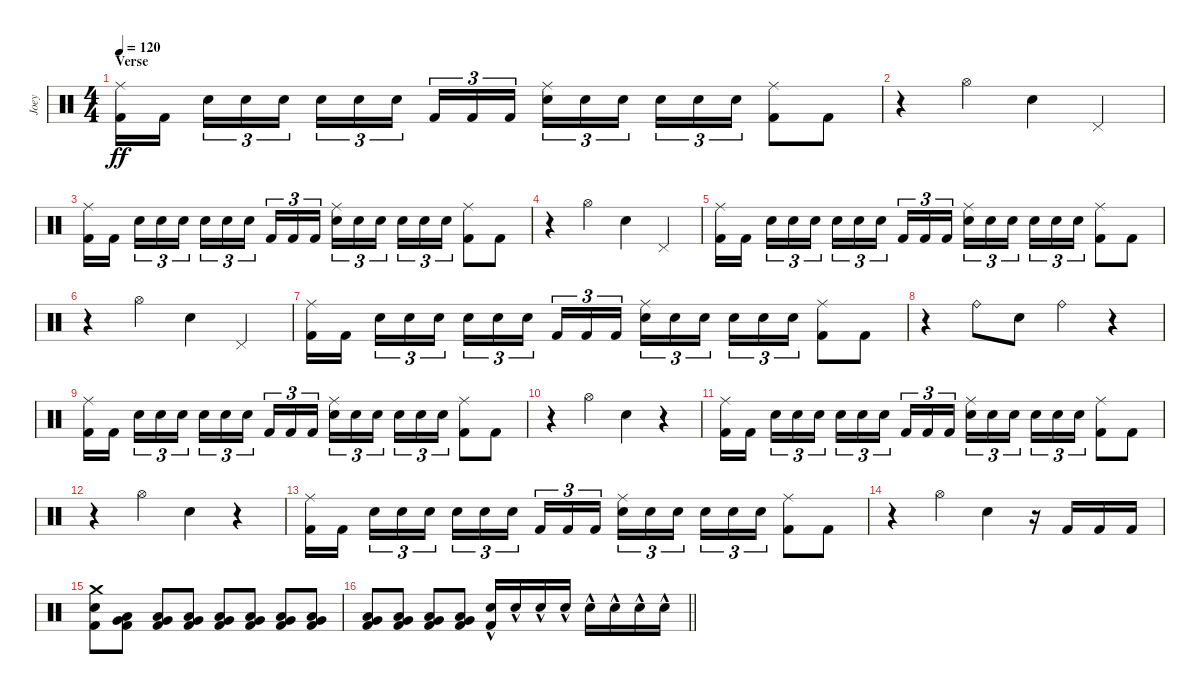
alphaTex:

\track ("Joey" "Joey") {instrument percussion}
\staff {score}
\articulation defaults
\ts (4 4)
\section ("" "Verse")
\tempo 120
\clef neutral
\ks c
("Ride (middle)" "Kick (hit) 2").16{dy ff} "Kick (hit) 2".16{beam splitsecondary} "Snare (hit) 2".16{tu (3 2)} "Snare (hit) 2".16{tu (3 2)} "Snare (hit) 2".16{tu (3 2)} "Snare (hit) 2".16{tu (3 2)} "Snare (hit) 2".16{tu (3 2)} "Snare (hit) 2".16{tu (3 2) beam splitsecondary} "Kick (hit) 2".16{tu (3 2)} "Kick (hit) 2".16{tu (3 2)} "Kick (hit) 2".16{tu (3 2)} ("Ride (middle)" "Snare (hit) 2").16{tu (3 2)} "Snare (hit) 2".16{tu (3 2)} "Snare (hit) 2".16{tu (3 2) beam splitsecondary} "Snare (hit) 2".16{tu (3 2)} "Snare (hit) 2".16{tu (3 2)} "Snare (hit) 2".16{tu (3 2)} ("Ride (middle)" "Kick (hit) 2").8 "Kick (hit) 2".8 |
r.4 "Hi-Hat (open)".4 "Snare (hit) 2".4 "Pedal Hi-Hat (hit)".4 |
("Ride (middle)" "Kick (hit) 2").16 "Kick (hit) 2".16{beam splitsecondary} "Snare (hit) 2".16{tu (3 2)} "Snare (hit) 2".16{tu (3 2)} "Snare (hit) 2".16{tu (3 2)} "Snare (hit) 2".16{tu (3 2)} "Snare (hit) 2".16{tu (3 2)} "Snare (hit) 2".16{tu (3 2) beam splitsecondary} "Kick (hit) 2".16{tu (3 2)} "Kick (hit) 2".16{tu (3 2)} "Kick (hit) 2".16{tu (3 2)} ("Ride (middle)" "Snare (hit) 2").16{tu (3 2)} "Snare (hit) 2".16{tu (3 2)} "Snare (hit) 2".16{tu (3 2) beam splitsecondary} "Snare (hit) 2".16{tu (3 2)} "Snare (hit) 2".16{tu (3 2)} "Snare (hit) 2".16{tu (3 2)} ("Ride (middle)" "Kick (hit) 2").8 "Kick (hit) 2".8 |
r.4 "Hi-Hat (open)".4 "Snare (hit) 2".4 "Pedal Hi-Hat (hit)".4 |
("Ride (middle)" "Kick (hit) 2").16 "Kick (hit) 2".16{beam splitsecondary} "Snare (hit) 2".16{tu (3 2)} "Snare (hit) 2".16{tu (3 2)} "Snare (hit) 2".16{tu (3 2)} "Snare (hit) 2".16{tu (3 2)} "Snare (hit) 2".16{tu (3 2)} "Snare (hit) 2".16{tu (3 2) beam splitsecondary} "Kick (hit) 2".16{tu (3 2)} "Kick (hit) 2".16{tu (3 2)} "Kick (hit) 2".16{tu (3 2)} ("Ride (middle)" "Snare (hit) 2").16{tu (3 2)} "Snare (hit) 2".16{tu (3 2)} "Snare (hit) 2".16{tu (3 2) beam splitsecondary} "Snare (hit) 2".16{tu (3 2)} "Snare (hit) 2".16{tu (3 2)} "Snare (hit) 2".16{tu (3 2)} ("Ride (middle)" "Kick (hit) 2").8 "Kick (hit) 2".8 |
r.4 "Hi-Hat (open)".4 "Snare (hit) 2".4 "Pedal Hi-Hat (hit)".4 |
("Ride (middle)" "Kick (hit) 2").16 "Kick (hit) 2".16{beam splitsecondary} "Snare (hit) 2".16{tu (3 2)} "Snare (hit) 2".16{tu (3 2)} "Snare (hit) 2".16{tu (3 2)} "Snare (hit) 2".16{tu (3 2)} "Snare (hit) 2".16{tu (3 2)} "Snare (hit) 2".16{tu (3 2) beam splitsecondary} "Kick (hit) 2".16{tu (3 2)} "Kick (hit) 2".16{tu (3 2)} "Kick (hit) 2".16{tu (3 2)} ("Ride (middle)" "Snare (hit) 2").16{tu (3 2)} "Snare (hit) 2".16{tu (3 2)} "Snare (hit) 2".16{tu (3 2) beam splitsecondary} "Snare (hit) 2".16{tu (3 2)} "Snare (hit) 2".16{tu (3 2)} "Snare (hit) 2".16{tu (3 2)} ("Ride (middle)" "Kick (hit) 2").8 "Kick (hit) 2".8 |
r.4 "Ride (bell)".8 "Snare (hit) 2".8 "Ride (bell)".4 r.4 |
("Ride (middle)" "Kick (hit) 2").16 "Kick (hit) 2".16{beam splitsecondary} "Snare (hit) 2".16{tu (3 2)} "Snare (hit) 2".16{tu (3 2)} "Snare (hit) 2".16{tu (3 2)} "Snare (hit) 2".16{tu (3 2)} "Snare (hit) 2".16{tu (3 2)} "Snare (hit) 2".16{tu (3 2) beam splitsecondary} "Kick (hit) 2".16{tu (3 2)} "Kick (hit) 2".16{tu (3 2)} "Kick (hit) 2".16{tu (3 2)} ("Ride (middle)" "Snare (hit) 2").16{tu (3 2)} "Snare (hit) 2".16{tu (3 2)} "Snare (hit) 2".16{tu (3 2) beam splitsecondary} "Snare (hit) 2".16{tu (3 2)} "Snare (hit) 2".16{tu (3 2)} "Snare (hit) 2".16{tu (3 2)} ("Ride (middle)" "Kick (hit) 2").8 "Kick (hit) 2".8 |
r.4 "Hi-Hat (open)".4 "Snare (hit) 2".4 r.4 |
("Ride (middle)" "Kick (hit) 2").16 "Kick (hit) 2".16{beam splitsecondary} "Snare (hit) 2".16{tu (3 2)} "Snare (hit) 2".16{tu (3 2)} "Snare (hit) 2".16{tu (3 2)} "Snare (hit) 2".16{tu (3 2)} "Snare (hit) 2".16{tu (3 2)} "Snare (hit) 2".16{tu (3 2) beam splitsecondary} "Kick (hit) 2".16{tu (3 2)} "Kick (hit) 2".16{tu (3 2)} "Kick (hit) 2".16{tu (3 2)} ("Ride (middle)" "Snare (hit) 2").16{tu (3 2)} "Snare (hit) 2".16{tu (3 2)} "Snare (hit) 2".16{tu (3 2) beam splitsecondary} "Snare (hit) 2".16{tu (3 2)} "Snare (hit) 2".16{tu (3 2)} "Snare (hit) 2".16{tu (3 2)} ("Ride (middle)" "Kick (hit) 2").8 "Kick (hit) 2".8 |
r.4 "Hi-Hat (open)".4 "Snare (hit) 2".4 r.4 |
("Ride (middle)" "Kick (hit) 2").16 "Kick (hit) 2".16{beam splitsecondary} "Snare (hit) 2".16{tu (3 2)} "Snare (hit) 2".16{tu (3 2)} "Snare (hit) 2".16{tu (3 2)} "Snare (hit) 2".16{tu (3 2)} "Snare (hit) 2".16{tu (3 2)} "Snare (hit) 2".16{tu (3 2) beam splitsecondary} "Kick (hit) 2".16{tu (3 2)} "Kick (hit) 2".16{tu (3 2)} "Kick (hit) 2".16{tu (3 2)} ("Ride (middle)" "Snare (hit) 2").16{tu (3 2)} "Snare (hit) 2".16{tu (3 2)} "Snare (hit) 2".16{tu (3 2) beam splitsecondary} "Snare (hit) 2".16{tu (3 2)} "Snare (hit) 2".16{tu (3 2)} "Snare (hit) 2".16{tu (3 2)} ("Ride (middle)" "Kick (hit) 2").8 "Kick (hit) 2".8 |
r.4 "Hi-Hat (open)".4 "Snare (hit) 2".4 r.16 "Kick (hit) 2".16 "Kick (hit) 2".16 "Kick (hit) 2".16 |
("Crash medium (hit)" "Snare (hit) 2" "Kick (hit) 2").8 ("Very Low Tom (hit)" "Low Floor Tom (hit)" "Kick (hit) 2").8 ("Very Low Tom (hit)" "Low Floor Tom (hit)" "Kick (hit) 2").8 ("Very Low Tom (hit)" "Low Floor Tom (hit)" "Kick (hit) 2").8 ("Very Low Tom (hit)" "Low Floor Tom (hit)" "Kick (hit) 2").8 ("Very Low Tom (hit)" "Low Floor Tom (hit)" "Kick (hit) 2").8 ("Very Low Tom (hit)" "Low Floor Tom (hit)" "Kick (hit) 2").8 ("Very Low Tom (hit)" "Low Floor Tom (hit)" "Kick (hit) 2").8 |
\barLineRight lightlight
("Very Low Tom (hit)" "Low Floor Tom (hit)" "Kick (hit) 2").8 ("Very Low Tom (hit)" "Low Floor Tom (hit)" "Kick (hit) 2").8 ("Very Low Tom (hit)" "Low Floor Tom (hit)" "Kick (hit) 2").8 ("Very Low Tom (hit)" "Low Floor Tom (hit)" "Kick (hit) 2").8 ("Snare (hit) 2"{hac} "Kick (hit) 2").16 "Snare (hit) 2"{hac}.16 "Snare (hit) 2"{hac}.16 "Snare (hit) 2"{hac}.16 "Snare (hit) 2"{hac}.16 "Snare (hit) 2"{hac}.16 "Snare (hit) 2"{hac}.16 "Snare (hit) 2"{hac}.16
